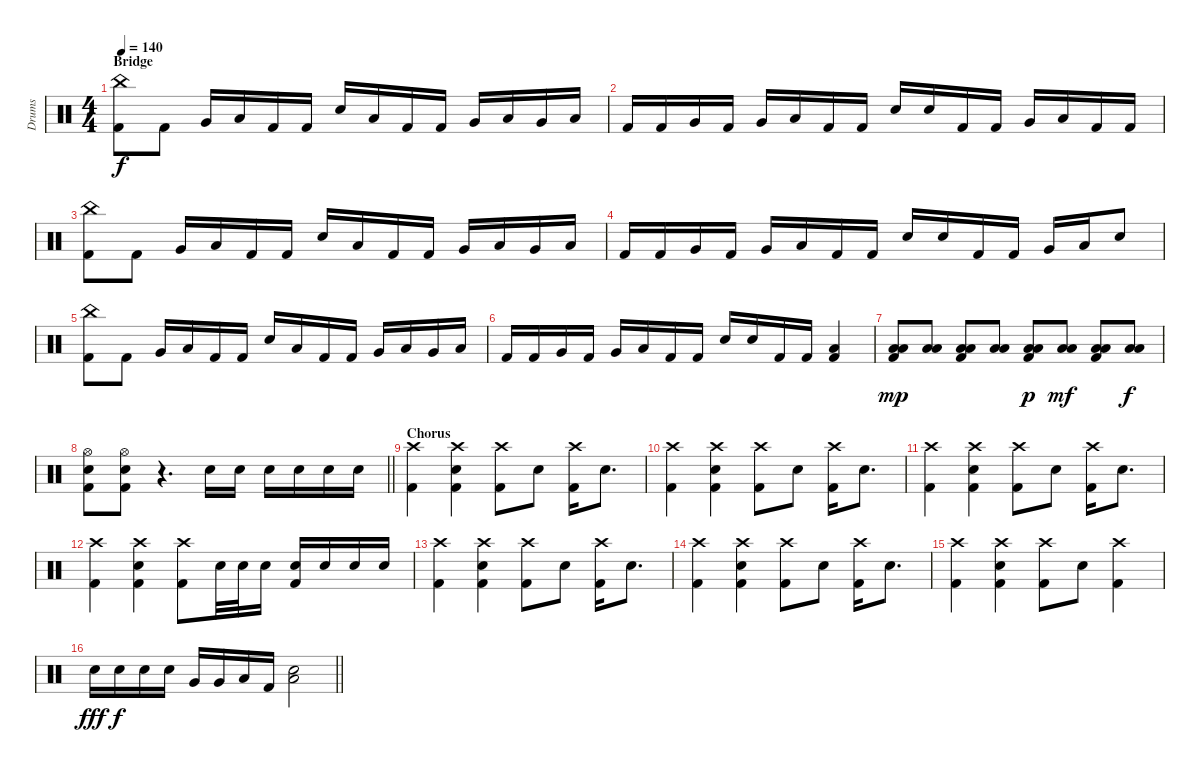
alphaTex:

\track ("Drums" "Drums") {instrument percussion}
\staff {score}
\articulation defaults
\ts (4 4)
\section ("" "Bridge")
\tempo 140
\clef neutral
\ks c
("China (hit)" "Kick (hit) 2").8{dy f} "Kick (hit) 2".8 "Very Low Tom (hit)".16 "Low Floor Tom (hit)".16 "Kick (hit) 2".16 "Kick (hit) 2".16 "Electric Snare (hit)".16 "Low Floor Tom (hit)".16 "Kick (hit) 2".16 "Kick (hit) 2".16 "Very Low Tom (hit)".16 "Low Floor Tom (hit)".16 "Very Low Tom (hit)".16 "Low Floor Tom (hit)".16 |
"Kick (hit) 2".16 "Kick (hit) 2".16 "Very Low Tom (hit)".16 "Kick (hit) 2".16 "Very Low Tom (hit)".16 "Low Floor Tom (hit)".16 "Kick (hit) 2".16 "Kick (hit) 2".16 "Electric Snare (hit)".16 "Electric Snare (hit)".16 "Kick (hit) 2".16 "Kick (hit) 2".16 "Very Low Tom (hit)".16 "Low Floor Tom (hit)".16 "Kick (hit) 2".16 "Kick (hit) 2".16 |
("China (hit)" "Kick (hit) 2").8 "Kick (hit) 2".8 "Very Low Tom (hit)".16 "Low Floor Tom (hit)".16 "Kick (hit) 2".16 "Kick (hit) 2".16 "Electric Snare (hit)".16 "Low Floor Tom (hit)".16 "Kick (hit) 2".16 "Kick (hit) 2".16 "Very Low Tom (hit)".16 "Low Floor Tom (hit)".16 "Very Low Tom (hit)".16 "Low Floor Tom (hit)".16 |
"Kick (hit) 2".16 "Kick (hit) 2".16 "Very Low Tom (hit)".16 "Kick (hit) 2".16 "Very Low Tom (hit)".16 "Low Floor Tom (hit)".16 "Kick (hit) 2".16 "Kick (hit) 2".16 "Electric Snare (hit)".16 "Electric Snare (hit)".16 "Kick (hit) 2".16 "Kick (hit) 2".16 "Very Low Tom (hit)".16 "Low Floor Tom (hit)".16 "Electric Snare (hit)".8 |
("China (hit)" "Kick (hit) 2").8 "Kick (hit) 2".8 "Very Low Tom (hit)".16 "Low Floor Tom (hit)".16 "Kick (hit) 2".16 "Kick (hit) 2".16 "Electric Snare (hit)".16 "Low Floor Tom (hit)".16 "Kick (hit) 2".16 "Kick (hit) 2".16 "Very Low Tom (hit)".16 "Low Floor Tom (hit)".16 "Very Low Tom (hit)".16 "Low Floor Tom (hit)".16 |
"Kick (hit) 2".16 "Kick (hit) 2".16 "Very Low Tom (hit)".16 "Kick (hit) 2".16 "Very Low Tom (hit)".16 "Low Floor Tom (hit)".16 "Kick (hit) 2".16 "Kick (hit) 2".16 "Electric Snare (hit)".16 "Electric Snare (hit)".16 "Kick (hit) 2".16 "Kick (hit) 2".16 ("Low Floor Tom (hit)" "Kick (hit) 2").4 |
("Low Tom (hit)" "Low Floor Tom (hit)" "Kick (hit) 2").8{dy mp} ("Low Tom (hit)" "Low Floor Tom (hit)").8 ("Low Tom (hit)" "Low Floor Tom (hit)" "Kick (hit) 2").8 ("Low Tom (hit)" "Low Floor Tom (hit)").8 ("Low Tom (hit)" "Low Floor Tom (hit)" "Kick (hit) 2").8{dy p} ("Low Tom (hit)" "Low Floor Tom (hit)").8{dy mf} ("Low Tom (hit)" "Low Floor Tom (hit)" "Kick (hit) 2").8 ("Low Tom (hit)" "Low Floor Tom (hit)").8{dy f} |
\barLineRight lightlight
("Hi-Hat (open)" "Electric Snare (hit)" "Kick (hit) 2").8 ("Hi-Hat (open)" "Electric Snare (hit)" "Kick (hit) 2").8 r.4{d volume 0} "Electric Snare (hit)".16{volume 10} "Electric Snare (hit)".16 "Electric Snare (hit)".16 "Electric Snare (hit)".16 "Electric Snare (hit)".16 "Electric Snare (hit)".16 |
\section ("" "Chorus")
("Crash high (hit)" "Kick (hit) 2").4{volume 12 balance 8} ("Crash high (hit)" "Electric Snare (hit)" "Kick (hit) 2").4 ("Crash high (hit)" "Kick (hit) 2").8 "Electric Snare (hit)".8 ("Crash high (hit)" "Kick (hit) 2").16 "Electric Snare (hit)".8{d} |
("Crash high (hit)" "Kick (hit) 2").4 ("Crash high (hit)" "Electric Snare (hit)" "Kick (hit) 2").4 ("Crash high (hit)" "Kick (hit) 2").8 "Electric Snare (hit)".8 ("Crash high (hit)" "Kick (hit) 2").16 "Electric Snare (hit)".8{d} |
("Crash high (hit)" "Kick (hit) 2").4 ("Crash high (hit)" "Electric Snare (hit)" "Kick (hit) 2").4 ("Crash high (hit)" "Kick (hit) 2").8 "Electric Snare (hit)".8 ("Crash high (hit)" "Kick (hit) 2").16 "Electric Snare (hit)".8{d} |
("Crash high (hit)" "Kick (hit) 2").4 ("Crash high (hit)" "Electric Snare (hit)" "Kick (hit) 2").4 ("Crash high (hit)" "Kick (hit) 2").8 "Electric Snare (hit)".32 "Electric Snare (hit)".32 "Electric Snare (hit)".16 ("Electric Snare (hit)" "Kick (hit) 2").16 "Electric Snare (hit)".16 "Electric Snare (hit)".16 "Electric Snare (hit)".16 |
("Crash high (hit)" "Kick (hit) 2").4 ("Crash high (hit)" "Electric Snare (hit)" "Kick (hit) 2").4 ("Crash high (hit)" "Kick (hit) 2").8 "Electric Snare (hit)".8 ("Crash high (hit)" "Kick (hit) 2").16 "Electric Snare (hit)".8{d} |
("Crash high (hit)" "Kick (hit) 2").4 ("Crash high (hit)" "Electric Snare (hit)" "Kick (hit) 2").4 ("Crash high (hit)" "Kick (hit) 2").8 "Electric Snare (hit)".8 ("Crash high (hit)" "Kick (hit) 2").16 "Electric Snare (hit)".8{d} |
("Crash high (hit)" "Kick (hit) 2").4 ("Crash high (hit)" "Electric Snare (hit)" "Kick (hit) 2").4 ("Crash high (hit)" "Kick (hit) 2").8 "Electric Snare (hit)".8 ("Crash high (hit)" "Kick (hit) 2").4 |
\barLineRight lightlight "Electric Snare (hit)".16{dy fff} "Electric Snare (hit)".16{dy f} "Electric Snare (hit)".16 "Electric Snare (hit)".16 "Very Low Tom (hit)".16 "Very Low Tom (hit)".16 "Low Floor Tom (hit)".16 "Kick (hit) 2".16
("Electric Snare (hit)" "Low Floor Tom (hit)").2
